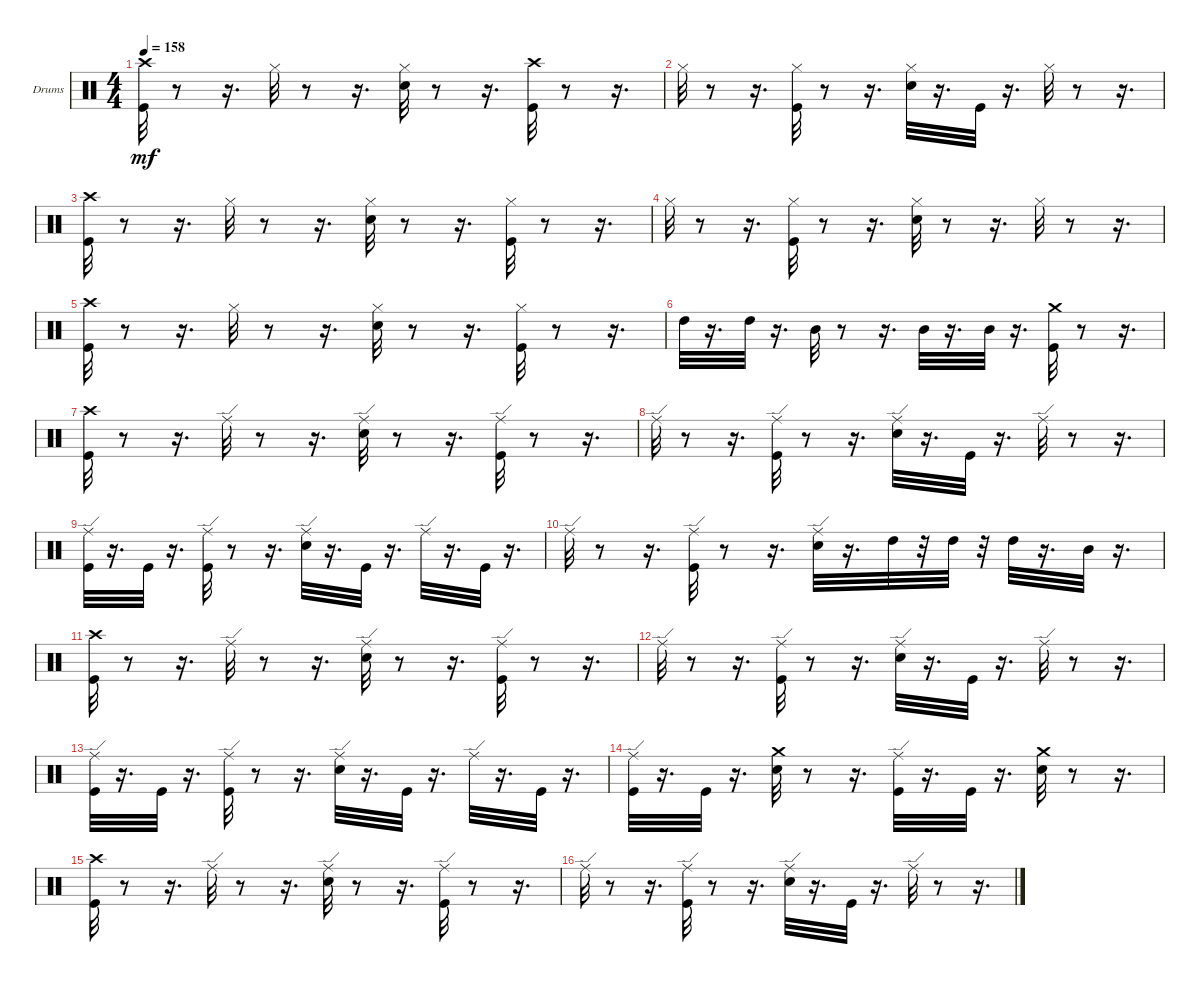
\bracketExtendMode groupsimilarinstruments
\firstSystemTrackNameOrientation horizontal
\otherSystemsTrackNameOrientation horizontal
\track ("" "Drums") {instrument percussion}
\staff {score}
\articulation defaults
\ts (4 4)
\tempo 158
\clef neutral
\ks c
("Crash high (hit)" "Kick (hit)").32{dy mf} r.8 r.16{d} "Hi-Hat (closed)".32 r.8 r.16{d} ("Snare (hit) 2" "Hi-Hat (closed)").32 r.8 r.16{d} ("Crash high (hit)" "Kick (hit)").32 r.8 r.16{d} |
"Hi-Hat (closed)".32 r.8 r.16{d} ("Hi-Hat (closed)" "Kick (hit)").32 r.8 r.16{d} ("Snare (hit) 2" "Hi-Hat (closed)").32 r.16{d} "Kick (hit)".32 r.16{d} "Hi-Hat (closed)".32 r.8 r.16{d} |
("Crash high (hit)" "Kick (hit)").32 r.8 r.16{d} "Hi-Hat (closed)".32 r.8 r.16{d} ("Snare (hit) 2" "Hi-Hat (closed)").32 r.8 r.16{d} ("Kick (hit)" "Hi-Hat (closed)").32 r.8 r.16{d} |
"Hi-Hat (closed)".32 r.8 r.16{d} ("Kick (hit)" "Hi-Hat (closed)").32 r.8 r.16{d} ("Snare (hit) 2" "Hi-Hat (closed)").32 r.8 r.16{d} "Hi-Hat (closed)".32 r.8 r.16{d} |
("Crash high (hit)" "Kick (hit)").32 r.8 r.16{d} "Hi-Hat (closed)".32 r.8 r.16{d} ("Snare (hit) 2" "Hi-Hat (closed)").32 r.8 r.16{d} ("Hi-Hat (closed)" "Kick (hit)").32 r.8 r.16{d} |
"High Tom (hit)".32 r.16{d} "High Tom (hit)".32 r.16{d} "Mid Tom (hit)".32 r.8 r.16{d} "Mid Tom (hit)".32 r.16{d} "Mid Tom (hit)".32 r.16{d} ("Crash medium (hit)" "Kick (hit)").32 r.8 r.16{d} |
("Crash high (hit)" "Kick (hit)").32 r.8 r.16{d} "Ride (edge)".32 r.8 r.16{d} ("Snare (hit) 2" "Ride (edge)").32 r.8 r.16{d} ("Kick (hit)" "Ride (edge)").32 r.8 r.16{d} |
"Ride (edge)".32 r.8 r.16{d} ("Kick (hit)" "Ride (edge)").32 r.8 r.16{d} ("Snare (hit) 2" "Ride (edge)").32 r.16{d} "Kick (hit)".32 r.16{d} "Ride (edge)".32 r.8 r.16{d} |
("Ride (edge)" "Kick (hit)").32 r.16{d} "Kick (hit)".32 r.16{d} ("Ride (edge)" "Kick (hit)").32 r.8 r.16{d} ("Snare (hit) 2" "Ride (edge)").32 r.16{d} "Kick (hit)".32 r.16{d} "Ride (edge)".32 r.16{d} "Kick (hit)".32 r.16{d} |
"Ride (edge)".32 r.8 r.16{d} ("Kick (hit)" "Ride (edge)").32 r.8 r.16{d} ("Snare (hit) 2" "Ride (edge)").32 r.16{d} "High Tom (hit)".32 r.32 "High Tom (hit)".32 r.32 "High Tom (hit)".32 r.16{d} "Mid Tom (hit)".32 r.16{d} |
("Crash high (hit)" "Kick (hit)").32 r.8 r.16{d} "Ride (edge)".32 r.8 r.16{d} ("Snare (hit) 2" "Ride (edge)").32 r.8 r.16{d} ("Kick (hit)" "Ride (edge)").32 r.8 r.16{d} |
"Ride (edge)".32 r.8 r.16{d} ("Kick (hit)" "Ride (edge)").32 r.8 r.16{d} ("Snare (hit) 2" "Ride (edge)").32 r.16{d} "Kick (hit)".32 r.16{d} "Ride (edge)".32 r.8 r.16{d} |
("Ride (edge)" "Kick (hit)").32 r.16{d} "Kick (hit)".32 r.16{d} ("Ride (edge)" "Kick (hit)").32 r.8 r.16{d} ("Snare (hit) 2" "Ride (edge)").32 r.16{d} "Kick (hit)".32 r.16{d} "Ride (edge)".32 r.16{d} "Kick (hit)".32 r.16{d} |
("Kick (hit)" "Ride (edge)").32 r.16{d} "Kick (hit)".32 r.16{d} ("Crash medium (hit)" "Snare (hit) 2").32 r.8 r.16{d} ("Kick (hit)" "Ride (edge)").32 r.16{d} "Kick (hit)".32 r.16{d} ("Crash medium (hit)" "Snare (hit) 2").32 r.8 r.16{d} |
("Crash high (hit)" "Kick (hit)").32 r.8 r.16{d} "Ride (edge)".32 r.8 r.16{d} ("Snare (hit) 2" "Ride (edge)").32 r.8 r.16{d} ("Kick (hit)" "Ride (edge)").32 r.8 r.16{d} |
"Ride (edge)".32 r.8 r.16{d} ("Kick (hit)" "Ride (edge)").32 r.8 r.16{d} ("Snare (hit) 2" "Ride (edge)").32 r.16{d} "Kick (hit)".32 r.16{d} "Ride (edge)".32 r.8 r.16{d}
